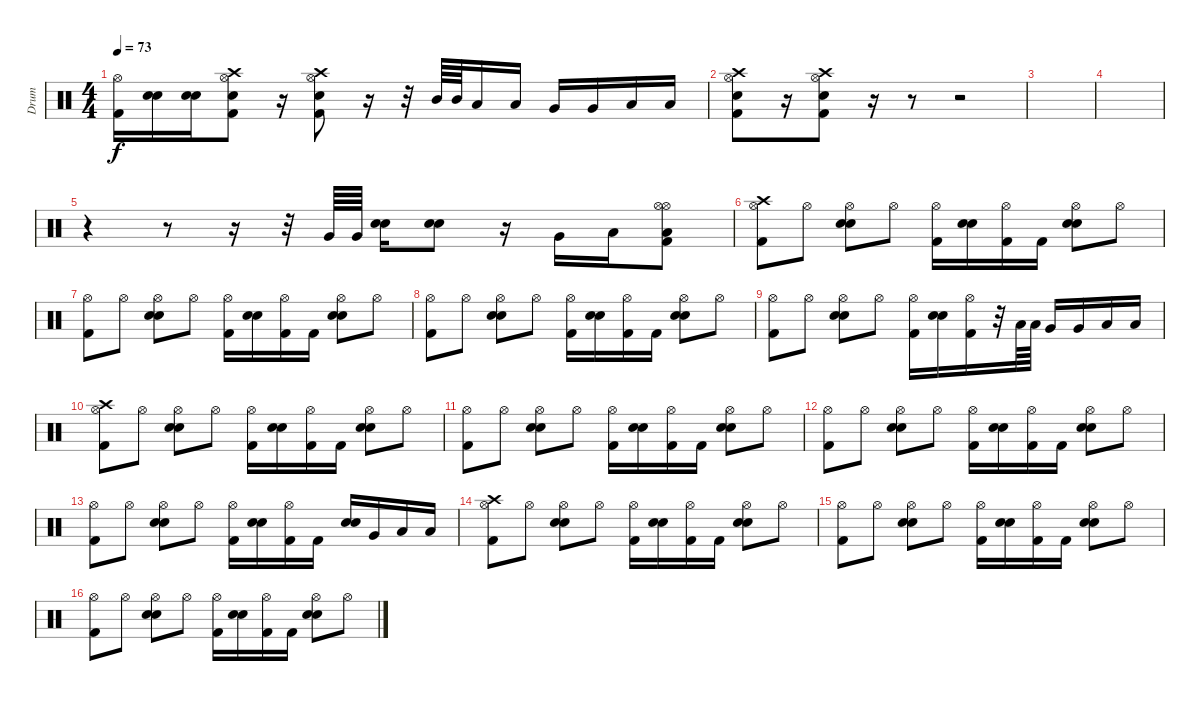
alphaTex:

\track ("Drum" "Drum") {instrument percussion}
\staff {score}
\articulation defaults
\ts (4 4)
\tempo 73
\clef neutral
\ks c
("Hi-Hat (open)" "Kick (hit) 2").16{dy f} ("Electric Snare (hit)" "Electric Snare (hit)").16 ("Electric Snare (hit)" "Electric Snare (hit)").16 ("Crash high (hit)" "Hi-Hat (open)" "Electric Snare (hit)" "Kick (hit) 2").8 r.16 ("Crash high (hit)" "Hi-Hat (open)" "Electric Snare (hit)" "Kick (hit) 2").8 r.16 r.32 "Mid Tom (hit)".64 "Mid Tom (hit)".64 "Low Tom (hit)".16 "Low Tom (hit)".16 "Very Low Tom (hit)".16 "Very Low Tom (hit)".16 "Low Floor Tom (hit)".16 "Low Floor Tom (hit)".16 |
("Crash high (hit)" "Hi-Hat (open)" "Electric Snare (hit)" "Kick (hit) 2").8 r.16 ("Crash high (hit)" "Hi-Hat (open)" "Electric Snare (hit)" "Kick (hit) 2").8 r.16 r.8 r.2 |
|
|
r.4 r.8 r.16 r.32 "Very Low Tom (hit)".64 "Very Low Tom (hit)".64 ("Electric Snare (hit)" "Electric Snare (hit)").16 ("Electric Snare (hit)" "Electric Snare (hit)").8 r.16 "Very Low Tom (hit)".16 "Low Floor Tom (hit)".16 ("Hi-Hat (open)" "Hi-Hat (open)" "Low Floor Tom (hit)" "Kick (hit) 2").8 |
("Hi-Hat (open)" "Crash high (hit)" "Kick (hit) 2").8 "Hi-Hat (open)".8 ("Hi-Hat (open)" "Electric Snare (hit)" "Electric Snare (hit)").8 "Hi-Hat (open)".8 ("Hi-Hat (open)" "Kick (hit) 2").16 ("Electric Snare (hit)" "Electric Snare (hit)").16 ("Hi-Hat (open)" "Kick (hit) 2").16 "Kick (hit) 2".16 ("Hi-Hat (open)" "Electric Snare (hit)" "Electric Snare (hit)").8 "Hi-Hat (open)".8 |
("Hi-Hat (open)" "Kick (hit) 2").8 "Hi-Hat (open)".8 ("Hi-Hat (open)" "Electric Snare (hit)" "Electric Snare (hit)").8 "Hi-Hat (open)".8 ("Hi-Hat (open)" "Kick (hit) 2").16 ("Electric Snare (hit)" "Electric Snare (hit)").16 ("Hi-Hat (open)" "Kick (hit) 2").16 "Kick (hit) 2".16 ("Hi-Hat (open)" "Electric Snare (hit)" "Electric Snare (hit)").8 "Hi-Hat (open)".8 |
("Hi-Hat (open)" "Kick (hit) 2").8 "Hi-Hat (open)".8 ("Hi-Hat (open)" "Electric Snare (hit)" "Electric Snare (hit)").8 "Hi-Hat (open)".8 ("Hi-Hat (open)" "Kick (hit) 2").16 ("Electric Snare (hit)" "Electric Snare (hit)").16 ("Hi-Hat (open)" "Kick (hit) 2").16 "Kick (hit) 2".16 ("Hi-Hat (open)" "Electric Snare (hit)" "Electric Snare (hit)").8 "Hi-Hat (open)".8 |
("Hi-Hat (open)" "Kick (hit) 2").8 "Hi-Hat (open)".8 ("Hi-Hat (open)" "Electric Snare (hit)" "Electric Snare (hit)").8 "Hi-Hat (open)".8 ("Hi-Hat (open)" "Kick (hit) 2").16 ("Electric Snare (hit)" "Electric Snare (hit)").16 ("Hi-Hat (open)" "Kick (hit) 2").16 r.32 "Low Tom (hit)".64 "Low Tom (hit)".64 "Very Low Tom (hit)".16 "Very Low Tom (hit)".16 "Low Floor Tom (hit)".16 "Low Floor Tom (hit)".16 |
("Hi-Hat (open)" "Crash high (hit)" "Kick (hit) 2").8 "Hi-Hat (open)".8 ("Hi-Hat (open)" "Electric Snare (hit)" "Electric Snare (hit)").8 "Hi-Hat (open)".8 ("Hi-Hat (open)" "Kick (hit) 2").16 ("Electric Snare (hit)" "Electric Snare (hit)").16 ("Hi-Hat (open)" "Kick (hit) 2").16 "Kick (hit) 2".16 ("Hi-Hat (open)" "Electric Snare (hit)" "Electric Snare (hit)").8 "Hi-Hat (open)".8 |
("Hi-Hat (open)" "Kick (hit) 2").8 "Hi-Hat (open)".8 ("Hi-Hat (open)" "Electric Snare (hit)" "Electric Snare (hit)").8 "Hi-Hat (open)".8 ("Hi-Hat (open)" "Kick (hit) 2").16 ("Electric Snare (hit)" "Electric Snare (hit)").16 ("Hi-Hat (open)" "Kick (hit) 2").16 "Kick (hit) 2".16 ("Hi-Hat (open)" "Electric Snare (hit)" "Electric Snare (hit)").8 "Hi-Hat (open)".8 |
("Hi-Hat (open)" "Kick (hit) 2").8 "Hi-Hat (open)".8 ("Hi-Hat (open)" "Electric Snare (hit)" "Electric Snare (hit)").8 "Hi-Hat (open)".8 ("Hi-Hat (open)" "Kick (hit) 2").16 ("Electric Snare (hit)" "Electric Snare (hit)").16 ("Hi-Hat (open)" "Kick (hit) 2").16 "Kick (hit) 2".16 ("Hi-Hat (open)" "Electric Snare (hit)" "Electric Snare (hit)").8 "Hi-Hat (open)".8 |
("Hi-Hat (open)" "Kick (hit) 2").8 "Hi-Hat (open)".8 ("Hi-Hat (open)" "Electric Snare (hit)" "Electric Snare (hit)").8 "Hi-Hat (open)".8 ("Hi-Hat (open)" "Kick (hit) 2").16 ("Electric Snare (hit)" "Electric Snare (hit)").16 ("Hi-Hat (open)" "Kick (hit) 2").16 "Kick (hit) 2".16 ("Electric Snare (hit)" "Electric Snare (hit)").16 "Very Low Tom (hit)".16 "Low Floor Tom (hit)".16 "Low Floor Tom (hit)".16 |
("Hi-Hat (open)" "Crash high (hit)" "Kick (hit) 2").8 "Hi-Hat (open)".8 ("Hi-Hat (open)" "Electric Snare (hit)" "Electric Snare (hit)").8 "Hi-Hat (open)".8 ("Hi-Hat (open)" "Kick (hit) 2").16 ("Electric Snare (hit)" "Electric Snare (hit)").16 ("Hi-Hat (open)" "Kick (hit) 2").16 "Kick (hit) 2".16 ("Hi-Hat (open)" "Electric Snare (hit)" "Electric Snare (hit)").8 "Hi-Hat (open)".8 |
("Hi-Hat (open)" "Kick (hit) 2").8 "Hi-Hat (open)".8 ("Hi-Hat (open)" "Electric Snare (hit)" "Electric Snare (hit)").8 "Hi-Hat (open)".8 ("Hi-Hat (open)" "Kick (hit) 2").16 ("Electric Snare (hit)" "Electric Snare (hit)").16 ("Hi-Hat (open)" "Kick (hit) 2").16 "Kick (hit) 2".16 ("Hi-Hat (open)" "Electric Snare (hit)" "Electric Snare (hit)").8 "Hi-Hat (open)".8 |
("Hi-Hat (open)" "Kick (hit) 2").8 "Hi-Hat (open)".8 ("Hi-Hat (open)" "Electric Snare (hit)" "Electric Snare (hit)").8 "Hi-Hat (open)".8 ("Hi-Hat (open)" "Kick (hit) 2").16 ("Electric Snare (hit)" "Electric Snare (hit)").16 ("Hi-Hat (open)" "Kick (hit) 2").16 "Kick (hit) 2".16 ("Hi-Hat (open)" "Electric Snare (hit)" "Electric Snare (hit)").8 "Hi-Hat (open)".8
